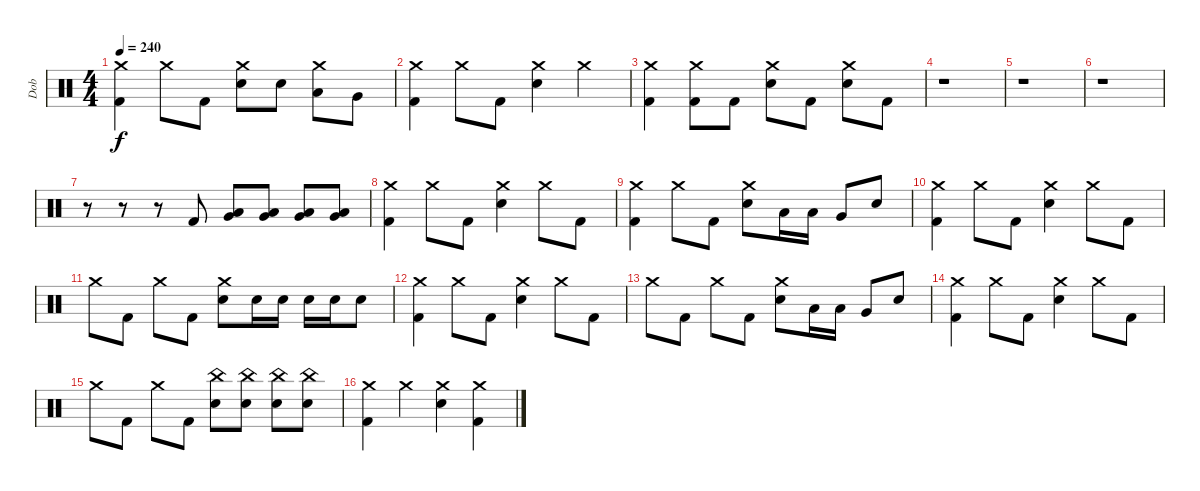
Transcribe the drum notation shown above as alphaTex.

\track ("Dob" "Dob") {instrument percussion}
\staff {score}
\articulation defaults
\ts (4 4)
\tempo 240
\clef neutral
\ks c
("Crash medium (hit)" "Kick (hit) 2").4{dy f} "Crash medium (hit)".8 "Kick (hit) 2".8 ("Crash medium (hit)" "Electric Snare (hit)").8 "Electric Snare (hit)".8 ("Crash medium (hit)" "Low Tom (hit)").8 "Very Low Tom (hit)".8 |
("Crash medium (hit)" "Kick (hit) 2").4 "Crash medium (hit)".8 "Kick (hit) 2".8 ("Crash medium (hit)" "Electric Snare (hit)").4 "Crash medium (hit)".4 |
("Crash medium (hit)" "Kick (hit) 2").4 ("Crash medium (hit)" "Kick (hit) 2").8 "Kick (hit) 2".8 ("Crash medium (hit)" "Electric Snare (hit)").8 "Kick (hit) 2".8 ("Crash medium (hit)" "Electric Snare (hit)").8 "Kick (hit) 2".8 |
r.1 |
r.1 |
r.1 |
r.8 r.8 r.8 "Kick (hit) 2".8 ("Low Tom (hit)" "Very Low Tom (hit)").8 ("Low Tom (hit)" "Very Low Tom (hit)").8 ("Low Tom (hit)" "Very Low Tom (hit)").8 ("Low Tom (hit)" "Very Low Tom (hit)").8 |
("Crash medium (hit)" "Kick (hit) 2").4 "Crash medium (hit)".8 "Kick (hit) 2".8 ("Crash medium (hit)" "Electric Snare (hit)").4 "Crash medium (hit)".8 "Kick (hit) 2".8 |
("Crash medium (hit)" "Kick (hit) 2").4 "Crash medium (hit)".8 "Kick (hit) 2".8 ("Crash medium (hit)" "Electric Snare (hit)").8 "Low Tom (hit)".16 "Low Tom (hit)".16 "Very Low Tom (hit)".8 "Electric Snare (hit)".8 |
("Crash medium (hit)" "Kick (hit) 2").4 "Crash medium (hit)".8 "Kick (hit) 2".8 ("Crash medium (hit)" "Electric Snare (hit)").4 "Crash medium (hit)".8 "Kick (hit) 2".8 |
"Crash medium (hit)".8 "Kick (hit) 2".8 "Crash medium (hit)".8 "Kick (hit) 2".8 ("Crash medium (hit)" "Electric Snare (hit)").8 "Electric Snare (hit)".16 "Electric Snare (hit)".16 "Electric Snare (hit)".16 "Electric Snare (hit)".16 "Electric Snare (hit)".8 |
("Crash medium (hit)" "Kick (hit) 2").4 "Crash medium (hit)".8 "Kick (hit) 2".8 ("Crash medium (hit)" "Electric Snare (hit)").4 "Crash medium (hit)".8 "Kick (hit) 2".8 |
"Crash medium (hit)".8 "Kick (hit) 2".8 "Crash medium (hit)".8 "Kick (hit) 2".8 ("Crash medium (hit)" "Electric Snare (hit)").8 "Low Tom (hit)".16 "Low Tom (hit)".16 "Very Low Tom (hit)".8 "Electric Snare (hit)".8 |
("Crash medium (hit)" "Kick (hit) 2").4 "Crash medium (hit)".8 "Kick (hit) 2".8 ("Crash medium (hit)" "Electric Snare (hit)").4 "Crash medium (hit)".8 "Kick (hit) 2".8 |
"Crash medium (hit)".8 "Kick (hit) 2".8 "Crash medium (hit)".8 "Kick (hit) 2".8 ("China (hit)" "Electric Snare (hit)").8 ("China (hit)" "Electric Snare (hit)").8 ("China (hit)" "Electric Snare (hit)").8 ("China (hit)" "Electric Snare (hit)").8 |
("Crash medium (hit)" "Kick (hit) 2").4 "Crash medium (hit)".4 ("Crash medium (hit)" "Electric Snare (hit)").4 ("Crash medium (hit)" "Kick (hit) 2").4
